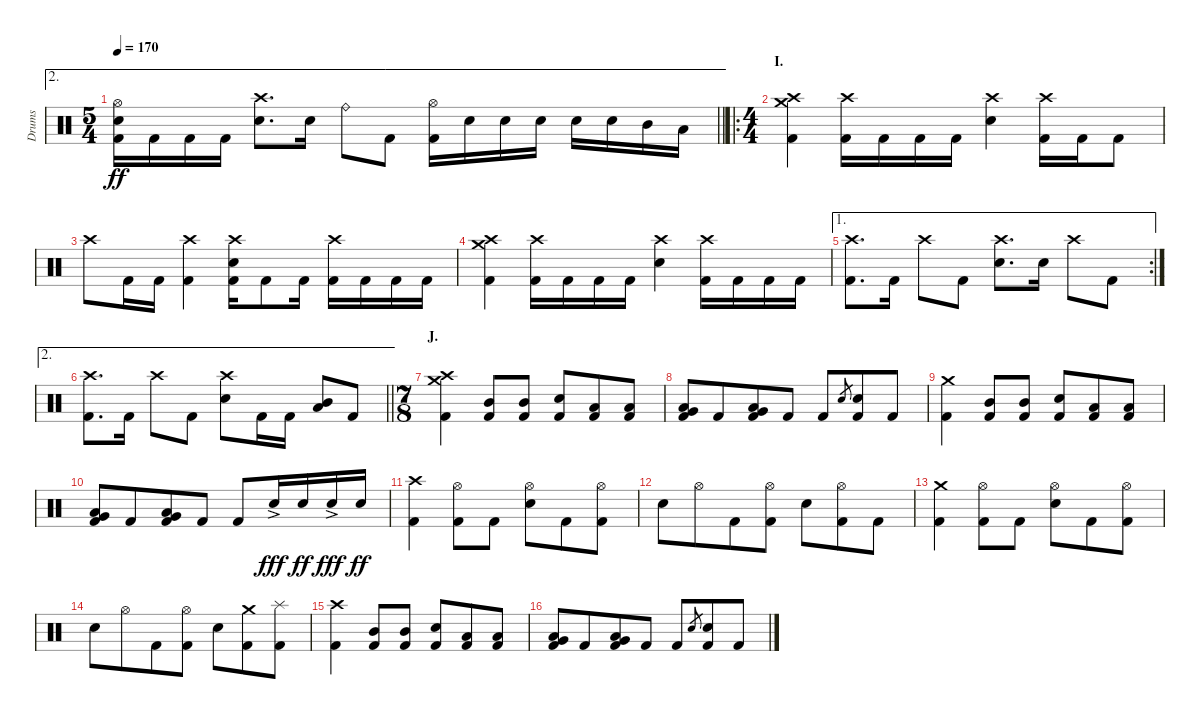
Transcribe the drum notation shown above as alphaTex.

\track ("Drums" "Drums") {instrument percussion}
\staff {score}
\articulation defaults
\ae 2
\ts (5 4)
\tempo 170
\clef neutral
\barLineRight lightlight
\ks c
("Hi-Hat (open)" "Electric Snare (hit)" "Kick (hit) 2").16{dy ff} "Kick (hit) 2".16 "Kick (hit) 2".16 "Kick (hit) 2".16 ("Crash high (hit)" "Electric Snare (hit)").8{d} "Electric Snare (hit)".16 "Ride (bell)".8 "Kick (hit) 2".8 ("Hi-Hat (open)" "Kick (hit) 2").16 "Electric Snare (hit)".16 "Electric Snare (hit)".16 "Electric Snare (hit)".16 "Electric Snare (hit)".16 "Electric Snare (hit)".16 "Mid Tom (hit)".16 "Low Tom (hit)".16 |
\ro
\ts (4 4)
\section ("" "I.")
("Crash medium (hit)" "Crash high (hit)" "Kick (hit) 2").4 ("Crash high (hit)" "Kick (hit) 2").16 "Kick (hit) 2".16 "Kick (hit) 2".16 "Kick (hit) 2".16 ("Crash high (hit)" "Electric Snare (hit)").4 ("Crash high (hit)" "Kick (hit) 2").16 "Kick (hit) 2".16 "Kick (hit) 2".8 |
"Crash high (hit)".8 "Kick (hit) 2".16 "Kick (hit) 2".16 ("Crash high (hit)" "Kick (hit) 2").4 ("Crash high (hit)" "Electric Snare (hit)" "Kick (hit) 2").16 "Kick (hit) 2".8 "Kick (hit) 2".16 ("Crash high (hit)" "Kick (hit) 2").16 "Kick (hit) 2".16 "Kick (hit) 2".16 "Kick (hit) 2".16 |
("Crash medium (hit)" "Crash high (hit)" "Kick (hit) 2").4 ("Crash high (hit)" "Kick (hit) 2").16 "Kick (hit) 2".16 "Kick (hit) 2".16 "Kick (hit) 2".16 ("Crash high (hit)" "Electric Snare (hit)").4 ("Crash high (hit)" "Kick (hit) 2").16 "Kick (hit) 2".16 "Kick (hit) 2".16 "Kick (hit) 2".16 |
\ae 1
\rc 2
("Crash high (hit)" "Kick (hit) 2").8{d} "Kick (hit) 2".16 "Crash high (hit)".8 "Kick (hit) 2".8 ("Crash high (hit)" "Electric Snare (hit)").8{d} "Electric Snare (hit)".16 "Crash high (hit)".8 "Kick (hit) 2".8 |
\ae 2
\barLineRight lightlight
("Crash high (hit)" "Kick (hit) 2").8{d} "Kick (hit) 2".16 "Crash high (hit)".8 "Kick (hit) 2".8 ("Crash high (hit)" "Electric Snare (hit)").8 "Kick (hit) 2".16 "Kick (hit) 2".16 ("Mid Tom (hit)" "Low Tom (hit)").8{bu 60} "Kick (hit) 2".8 |
\ts (7 8)
\section ("" "J.")
("Crash medium (hit)" "Crash high (hit)" "Kick (hit) 2").4 ("Mid Tom (hit)" "Kick (hit) 2").8 ("Mid Tom (hit)" "Kick (hit) 2").8 ("Electric Snare (hit)" "Kick (hit) 2").8 ("Low Tom (hit)" "Kick (hit) 2").8 ("Low Tom (hit)" "Kick (hit) 2").8 |
("Low Tom (hit)" "Very Low Tom (hit)" "Kick (hit) 2").8 "Kick (hit) 2".8 ("Low Tom (hit)" "Very Low Tom (hit)" "Kick (hit) 2").8 "Kick (hit) 2".8 "Kick (hit) 2".8 "Electric Snare (hit)".8{gr} ("Electric Snare (hit)" "Kick (hit) 2").8 "Kick (hit) 2".8 |
("Crash medium (hit)" "Kick (hit) 2").4 ("Mid Tom (hit)" "Kick (hit) 2").8 ("Mid Tom (hit)" "Kick (hit) 2").8 ("Electric Snare (hit)" "Kick (hit) 2").8 ("Low Tom (hit)" "Kick (hit) 2").8 ("Low Tom (hit)" "Kick (hit) 2").8 |
("Low Tom (hit)" "Very Low Tom (hit)" "Kick (hit) 2").8 "Kick (hit) 2".8 ("Low Tom (hit)" "Very Low Tom (hit)" "Kick (hit) 2").8 "Kick (hit) 2".8 "Kick (hit) 2".8 "Electric Snare (hit)"{ac}.16{dy fff} "Electric Snare (hit)".16{dy ff} "Electric Snare (hit)"{ac}.16{dy fff} "Electric Snare (hit)".16{dy ff} |
("Crash high (hit)" "Kick (hit) 2").4 ("Hi-Hat (open)" "Kick (hit) 2").8 "Kick (hit) 2".8 ("Hi-Hat (open)" "Electric Snare (hit)").8 "Kick (hit) 2".8 ("Hi-Hat (open)" "Kick (hit) 2").8 |
"Electric Snare (hit)".8 "Hi-Hat (open)".8 "Kick (hit) 2".8 ("Hi-Hat (open)" "Kick (hit) 2").8 "Electric Snare (hit)".8 ("Hi-Hat (open)" "Kick (hit) 2").8 "Kick (hit) 2".8 |
("Crash medium (hit)" "Kick (hit) 2").4 ("Hi-Hat (open)" "Kick (hit) 2").8 "Kick (hit) 2".8 ("Hi-Hat (open)" "Electric Snare (hit)").8 "Kick (hit) 2".8 ("Hi-Hat (open)" "Kick (hit) 2").8 |
"Electric Snare (hit)".8 "Hi-Hat (open)".8 "Kick (hit) 2".8 ("Hi-Hat (open)" "Kick (hit) 2").8 "Electric Snare (hit)".8 ("Crash medium (hit)" "Kick (hit) 2").8 ("Splash (hit)" "Kick (hit) 2").8 |
("Crash high (hit)" "Kick (hit) 2").4 ("Mid Tom (hit)" "Kick (hit) 2").8 ("Mid Tom (hit)" "Kick (hit) 2").8 ("Electric Snare (hit)" "Kick (hit) 2").8 ("Low Tom (hit)" "Kick (hit) 2").8 ("Low Tom (hit)" "Kick (hit) 2").8 |
("Low Tom (hit)" "Very Low Tom (hit)" "Kick (hit) 2").8 "Kick (hit) 2".8 ("Low Tom (hit)" "Very Low Tom (hit)" "Kick (hit) 2").8 "Kick (hit) 2".8 "Kick (hit) 2".8 "Electric Snare (hit)".8{gr} ("Electric Snare (hit)" "Kick (hit) 2").8 "Kick (hit) 2".8
